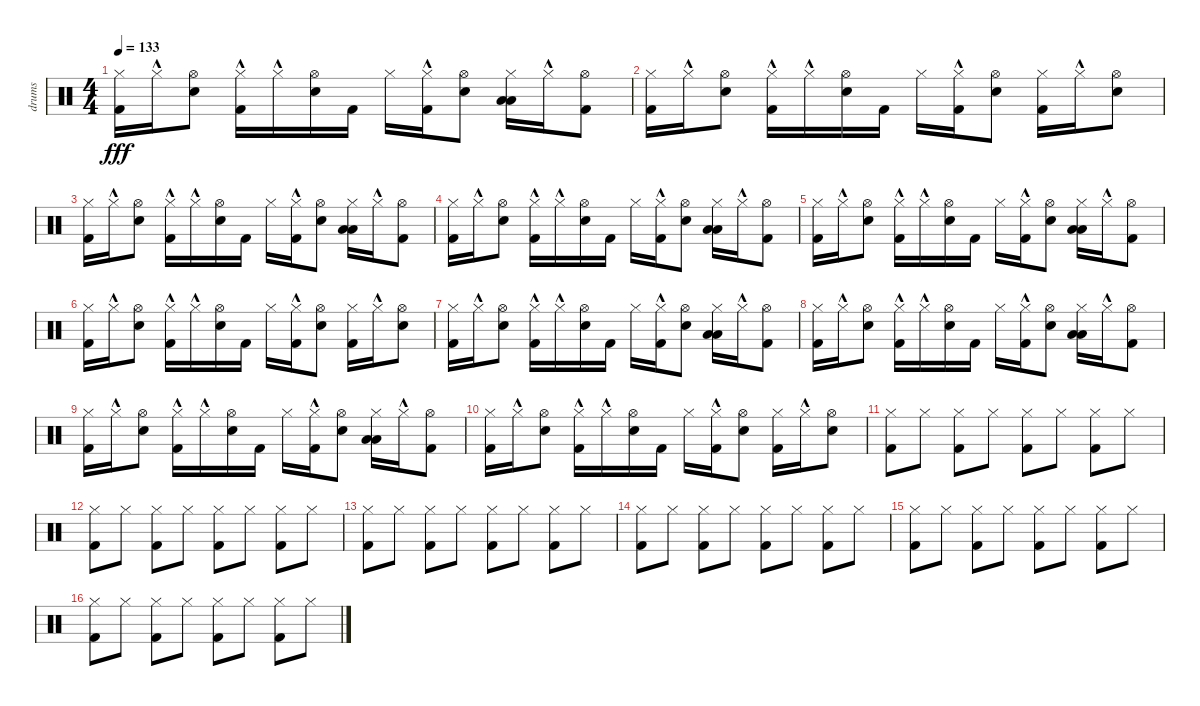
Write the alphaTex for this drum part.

\track ("drums" "drums") {instrument percussion}
\staff {score}
\articulation defaults
\ts (4 4)
\tempo 133
\clef neutral
\ks c
("Kick (hit) 2" "Hi-Hat (closed)").16{dy fff} "Hi-Hat (closed)"{hac}.16 ("Hi-Hat (open)" "Electric Snare (hit)").8 ("Kick (hit) 2"{hac} "Hi-Hat (closed)").16 "Hi-Hat (closed)"{hac}.16 ("Hi-Hat (open)" "Electric Snare (hit)").16 "Kick (hit) 2".16 "Hi-Hat (closed)".16 ("Kick (hit) 2" "Hi-Hat (closed)"{hac}).16 ("Hi-Hat (open)" "Electric Snare (hit)").8 ("Low Floor Tom (hit)" "Low Tom (hit)" "Hi-Hat (closed)").16 "Hi-Hat (closed)"{hac}.16 ("Hi-Hat (open)" "Kick (hit) 2").8 |
("Kick (hit) 2" "Hi-Hat (closed)").16 "Hi-Hat (closed)"{hac}.16 ("Hi-Hat (open)" "Electric Snare (hit)").8 ("Kick (hit) 2"{hac} "Hi-Hat (closed)").16 "Hi-Hat (closed)"{hac}.16 ("Hi-Hat (open)" "Electric Snare (hit)").16 "Kick (hit) 2".16 "Hi-Hat (closed)".16 ("Kick (hit) 2" "Hi-Hat (closed)"{hac}).16 ("Hi-Hat (open)" "Electric Snare (hit)").8 ("Hi-Hat (closed)" "Kick (hit) 2").16 "Hi-Hat (closed)"{hac}.16 ("Hi-Hat (open)" "Electric Snare (hit)").8 |
("Kick (hit) 2" "Hi-Hat (closed)").16 "Hi-Hat (closed)"{hac}.16 ("Hi-Hat (open)" "Electric Snare (hit)").8 ("Kick (hit) 2"{hac} "Hi-Hat (closed)").16 "Hi-Hat (closed)"{hac}.16 ("Hi-Hat (open)" "Electric Snare (hit)").16 "Kick (hit) 2".16 "Hi-Hat (closed)".16 ("Kick (hit) 2" "Hi-Hat (closed)"{hac}).16 ("Hi-Hat (open)" "Electric Snare (hit)").8 ("Low Floor Tom (hit)" "Low Tom (hit)" "Hi-Hat (closed)").16 "Hi-Hat (closed)"{hac}.16 ("Hi-Hat (open)" "Kick (hit) 2").8 |
("Kick (hit) 2" "Hi-Hat (closed)").16 "Hi-Hat (closed)"{hac}.16 ("Hi-Hat (open)" "Electric Snare (hit)").8 ("Kick (hit) 2"{hac} "Hi-Hat (closed)").16 "Hi-Hat (closed)"{hac}.16 ("Hi-Hat (open)" "Electric Snare (hit)").16 "Kick (hit) 2".16 "Hi-Hat (closed)".16 ("Kick (hit) 2" "Hi-Hat (closed)"{hac}).16 ("Hi-Hat (open)" "Electric Snare (hit)").8 ("Low Floor Tom (hit)" "Low Tom (hit)" "Hi-Hat (closed)").16 "Hi-Hat (closed)"{hac}.16 ("Hi-Hat (open)" "Kick (hit) 2").8 |
("Kick (hit) 2" "Hi-Hat (closed)").16 "Hi-Hat (closed)"{hac}.16 ("Hi-Hat (open)" "Electric Snare (hit)").8 ("Kick (hit) 2"{hac} "Hi-Hat (closed)").16 "Hi-Hat (closed)"{hac}.16 ("Hi-Hat (open)" "Electric Snare (hit)").16 "Kick (hit) 2".16 "Hi-Hat (closed)".16 ("Kick (hit) 2" "Hi-Hat (closed)"{hac}).16 ("Hi-Hat (open)" "Electric Snare (hit)").8 ("Low Floor Tom (hit)" "Low Tom (hit)" "Hi-Hat (closed)").16 "Hi-Hat (closed)"{hac}.16 ("Hi-Hat (open)" "Kick (hit) 2").8 |
("Kick (hit) 2" "Hi-Hat (closed)").16 "Hi-Hat (closed)"{hac}.16 ("Hi-Hat (open)" "Electric Snare (hit)").8 ("Kick (hit) 2"{hac} "Hi-Hat (closed)").16 "Hi-Hat (closed)"{hac}.16 ("Hi-Hat (open)" "Electric Snare (hit)").16 "Kick (hit) 2".16 "Hi-Hat (closed)".16 ("Kick (hit) 2" "Hi-Hat (closed)"{hac}).16 ("Hi-Hat (open)" "Electric Snare (hit)").8 ("Hi-Hat (closed)" "Kick (hit) 2").16 "Hi-Hat (closed)"{hac}.16 ("Hi-Hat (open)" "Electric Snare (hit)").8 |
("Kick (hit) 2" "Hi-Hat (closed)").16 "Hi-Hat (closed)"{hac}.16 ("Hi-Hat (open)" "Electric Snare (hit)").8 ("Kick (hit) 2"{hac} "Hi-Hat (closed)").16 "Hi-Hat (closed)"{hac}.16 ("Hi-Hat (open)" "Electric Snare (hit)").16 "Kick (hit) 2".16 "Hi-Hat (closed)".16 ("Kick (hit) 2" "Hi-Hat (closed)"{hac}).16 ("Hi-Hat (open)" "Electric Snare (hit)").8 ("Low Floor Tom (hit)" "Low Tom (hit)" "Hi-Hat (closed)").16 "Hi-Hat (closed)"{hac}.16 ("Hi-Hat (open)" "Kick (hit) 2").8 |
("Kick (hit) 2" "Hi-Hat (closed)").16 "Hi-Hat (closed)"{hac}.16 ("Hi-Hat (open)" "Electric Snare (hit)").8 ("Kick (hit) 2"{hac} "Hi-Hat (closed)").16 "Hi-Hat (closed)"{hac}.16 ("Hi-Hat (open)" "Electric Snare (hit)").16 "Kick (hit) 2".16 "Hi-Hat (closed)".16 ("Kick (hit) 2" "Hi-Hat (closed)"{hac}).16 ("Hi-Hat (open)" "Electric Snare (hit)").8 ("Low Floor Tom (hit)" "Low Tom (hit)" "Hi-Hat (closed)").16 "Hi-Hat (closed)"{hac}.16 ("Hi-Hat (open)" "Kick (hit) 2").8 |
("Kick (hit) 2" "Hi-Hat (closed)").16 "Hi-Hat (closed)"{hac}.16 ("Hi-Hat (open)" "Electric Snare (hit)").8 ("Kick (hit) 2"{hac} "Hi-Hat (closed)").16 "Hi-Hat (closed)"{hac}.16 ("Hi-Hat (open)" "Electric Snare (hit)").16 "Kick (hit) 2".16 "Hi-Hat (closed)".16 ("Kick (hit) 2" "Hi-Hat (closed)"{hac}).16 ("Hi-Hat (open)" "Electric Snare (hit)").8 ("Low Floor Tom (hit)" "Low Tom (hit)" "Hi-Hat (closed)").16 "Hi-Hat (closed)"{hac}.16 ("Hi-Hat (open)" "Kick (hit) 2").8 |
("Kick (hit) 2" "Hi-Hat (closed)").16 "Hi-Hat (closed)"{hac}.16 ("Hi-Hat (open)" "Electric Snare (hit)").8 ("Kick (hit) 2"{hac} "Hi-Hat (closed)").16 "Hi-Hat (closed)"{hac}.16 ("Hi-Hat (open)" "Electric Snare (hit)").16 "Kick (hit) 2".16 "Hi-Hat (closed)".16 ("Kick (hit) 2" "Hi-Hat (closed)"{hac}).16 ("Hi-Hat (open)" "Electric Snare (hit)").8 ("Hi-Hat (closed)" "Kick (hit) 2").16 "Hi-Hat (closed)"{hac}.16 ("Hi-Hat (open)" "Electric Snare (hit)").8 |
("Kick (hit) 2" "Hi-Hat (closed)").8 "Hi-Hat (closed)".8 ("Kick (hit) 2" "Hi-Hat (closed)").8 "Hi-Hat (closed)".8 ("Kick (hit) 2" "Hi-Hat (closed)").8 "Hi-Hat (closed)".8 ("Kick (hit) 2" "Hi-Hat (closed)").8 "Hi-Hat (closed)".8 |
("Kick (hit) 2" "Hi-Hat (closed)").8 "Hi-Hat (closed)".8 ("Kick (hit) 2" "Hi-Hat (closed)").8 "Hi-Hat (closed)".8 ("Kick (hit) 2" "Hi-Hat (closed)").8 "Hi-Hat (closed)".8 ("Kick (hit) 2" "Hi-Hat (closed)").8 "Hi-Hat (closed)".8 |
("Kick (hit) 2" "Hi-Hat (closed)").8 "Hi-Hat (closed)".8 ("Kick (hit) 2" "Hi-Hat (closed)").8 "Hi-Hat (closed)".8 ("Kick (hit) 2" "Hi-Hat (closed)").8 "Hi-Hat (closed)".8 ("Kick (hit) 2" "Hi-Hat (closed)").8 "Hi-Hat (closed)".8 |
("Kick (hit) 2" "Hi-Hat (closed)").8 "Hi-Hat (closed)".8 ("Kick (hit) 2" "Hi-Hat (closed)").8 "Hi-Hat (closed)".8 ("Kick (hit) 2" "Hi-Hat (closed)").8 "Hi-Hat (closed)".8 ("Kick (hit) 2" "Hi-Hat (closed)").8 "Hi-Hat (closed)".8 |
("Kick (hit) 2" "Hi-Hat (closed)").8 "Hi-Hat (closed)".8 ("Kick (hit) 2" "Hi-Hat (closed)").8 "Hi-Hat (closed)".8 ("Kick (hit) 2" "Hi-Hat (closed)").8 "Hi-Hat (closed)".8 ("Kick (hit) 2" "Hi-Hat (closed)").8 "Hi-Hat (closed)".8 |
("Kick (hit) 2" "Hi-Hat (closed)").8 "Hi-Hat (closed)".8 ("Kick (hit) 2" "Hi-Hat (closed)").8 "Hi-Hat (closed)".8 ("Kick (hit) 2" "Hi-Hat (closed)").8 "Hi-Hat (closed)".8 ("Kick (hit) 2" "Hi-Hat (closed)").8 "Hi-Hat (closed)".8
